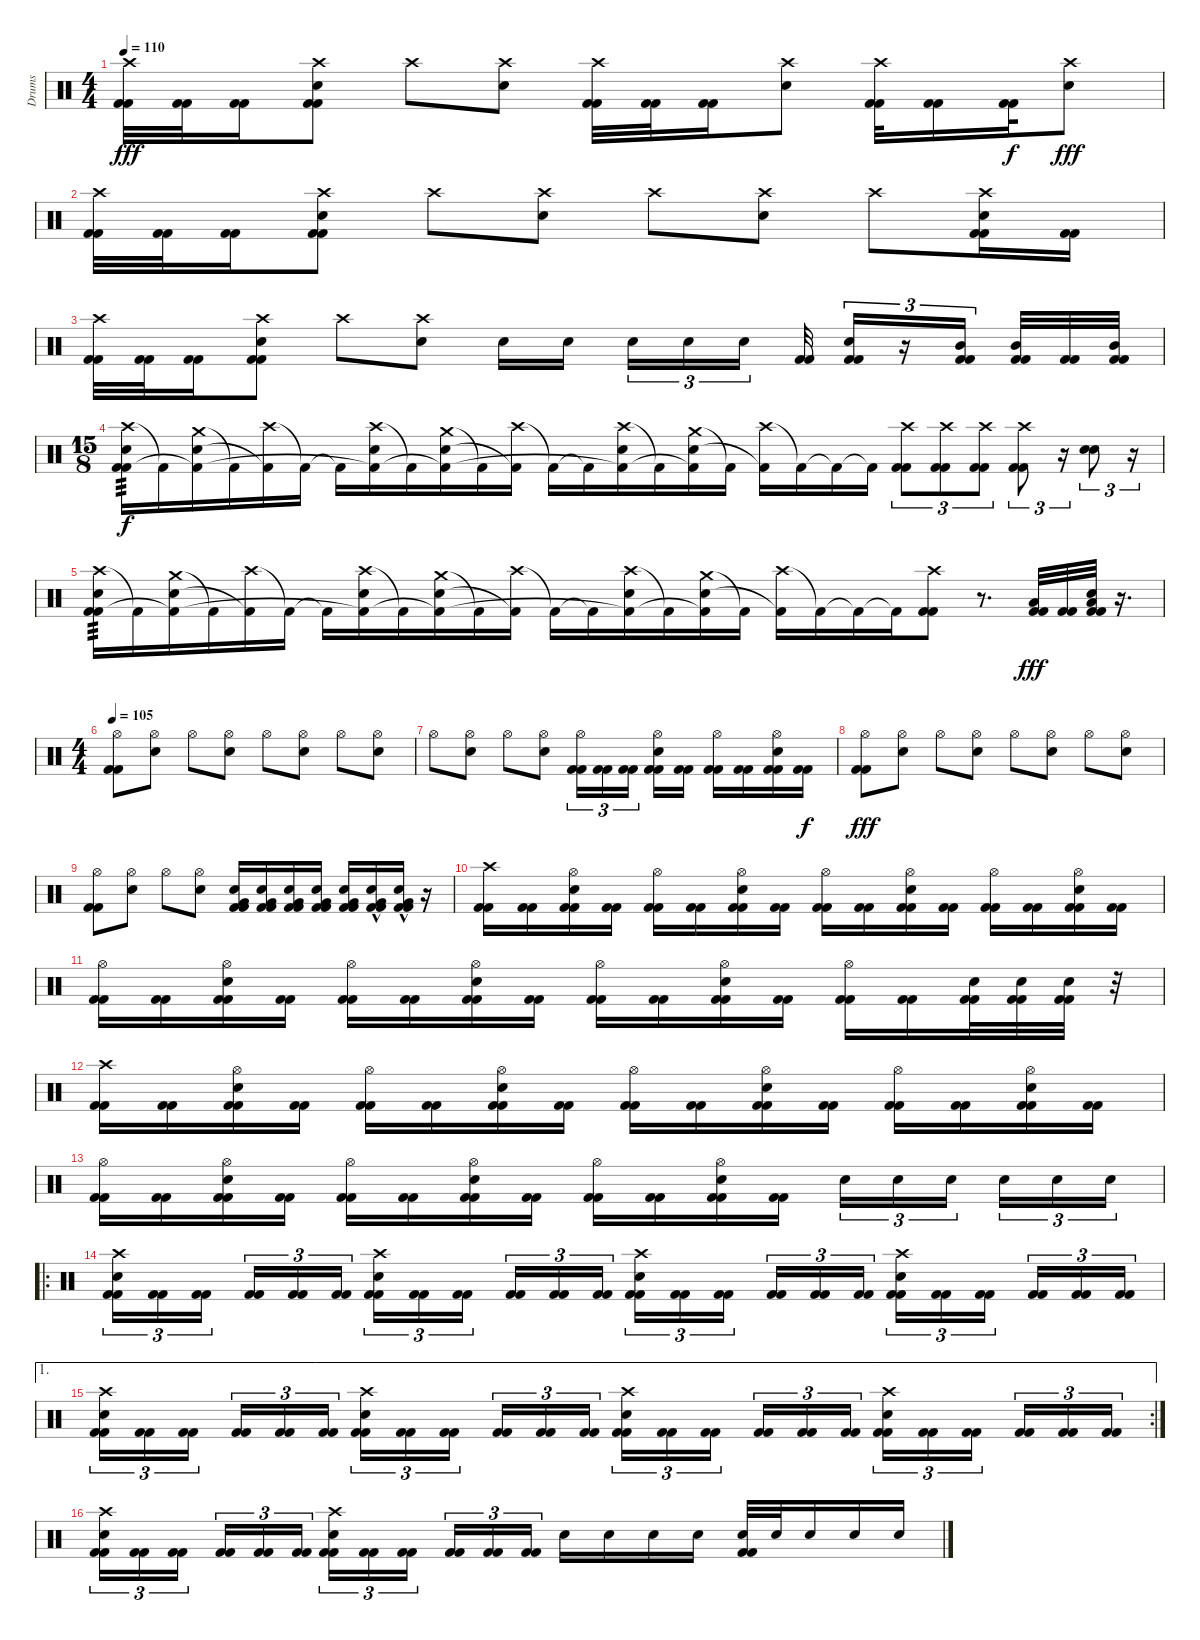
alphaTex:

\track ("Drums" "Drums") {instrument percussion}
\staff {score}
\articulation defaults
\ts (4 4)
\tempo 110
\clef neutral
\ks c
("Crash high (hit)" "Kick (hit) 2" "Kick (hit) 2").32{dy fff} ("Kick (hit) 2" "Kick (hit) 2").32 ("Kick (hit) 2" "Kick (hit) 2").16 ("Crash high (hit)" "Electric Snare (hit)" "Kick (hit) 2" "Kick (hit) 2").8 "Crash high (hit)".8 ("Crash high (hit)" "Electric Snare (hit)").8 ("Crash high (hit)" "Kick (hit) 2" "Kick (hit) 2").32 ("Kick (hit) 2" "Kick (hit) 2").32 ("Kick (hit) 2" "Kick (hit) 2").16 ("Crash high (hit)" "Electric Snare (hit)").8 ("Crash high (hit)" "Kick (hit) 2" "Kick (hit) 2").32 ("Kick (hit) 2" "Kick (hit) 2").16 ("Kick (hit) 2" "Kick (hit) 2").32{dy f} ("Crash high (hit)" "Electric Snare (hit)").8{dy fff} |
("Crash high (hit)" "Kick (hit) 2" "Kick (hit) 2").32 ("Kick (hit) 2" "Kick (hit) 2").32 ("Kick (hit) 2" "Kick (hit) 2").16 ("Crash high (hit)" "Electric Snare (hit)" "Kick (hit) 2" "Kick (hit) 2").8 "Crash high (hit)".8 ("Crash high (hit)" "Electric Snare (hit)").8 "Crash high (hit)".8 ("Crash high (hit)" "Electric Snare (hit)").8 "Crash high (hit)".8 ("Crash high (hit)" "Electric Snare (hit)" "Kick (hit) 2" "Kick (hit) 2").16 ("Kick (hit) 2" "Kick (hit) 2").16 |
("Crash high (hit)" "Kick (hit) 2" "Kick (hit) 2").32 ("Kick (hit) 2" "Kick (hit) 2").32 ("Kick (hit) 2" "Kick (hit) 2").16 ("Crash high (hit)" "Electric Snare (hit)" "Kick (hit) 2" "Kick (hit) 2").8 "Crash high (hit)".8 ("Crash high (hit)" "Electric Snare (hit)").8 "Electric Snare (hit)".16 "Electric Snare (hit)".16{beam splitsecondary} "Electric Snare (hit)".16{tu (3 2)} "Electric Snare (hit)".16{tu (3 2)} "Electric Snare (hit)".16{tu (3 2)} ("Kick (hit) 2" "Kick (hit) 2").32 ("Electric Snare (hit)" "Kick (hit) 2" "Kick (hit) 2").16{tu (3 2)} r.16{tu (3 2)} ("Mid Tom (hit)" "Kick (hit) 2" "Kick (hit) 2").16{tu (3 2) beam splitsecondary} ("Mid Tom (hit)" "Kick (hit) 2" "Kick (hit) 2").32 ("Kick (hit) 2" "Kick (hit) 2").32 ("Mid Tom (hit)" "Kick (hit) 2" "Kick (hit) 2").32 |
\ts (15 8)
("Crash high (hit)" "Electric Snare (hit)" "Kick (hit) 2" "Kick (hit) 2").16{tp 3 dy f} "Kick (hit) 2"{t}.16 ("Crash medium (hit)" "Electric Snare (hit)" "Kick (hit) 2"{t}).16 "Kick (hit) 2"{t}.16 ("Crash high (hit)" "Kick (hit) 2"{t}).16 "Kick (hit) 2"{t}.16 "Kick (hit) 2"{t}.16 ("Crash high (hit)" "Electric Snare (hit)" "Kick (hit) 2"{t}).16 "Kick (hit) 2"{t}.16 ("Crash medium (hit)" "Electric Snare (hit)" "Kick (hit) 2"{t}).16 "Kick (hit) 2"{t}.16 ("Crash high (hit)" "Kick (hit) 2"{t}).16 "Kick (hit) 2"{t}.16 "Kick (hit) 2"{t}.16 ("Crash high (hit)" "Electric Snare (hit)" "Kick (hit) 2"{t}).16 "Kick (hit) 2"{t}.16 ("Crash medium (hit)" "Electric Snare (hit)" "Kick (hit) 2"{t}).16 "Kick (hit) 2"{t}.16 ("Crash high (hit)" "Kick (hit) 2"{t}).16 "Kick (hit) 2"{t}.16 "Kick (hit) 2"{t}.16 "Kick (hit) 2"{t}.16 ("Crash high (hit)" "Kick (hit) 2" "Kick (hit) 2").8{tu (3 2)} ("Crash high (hit)" "Kick (hit) 2" "Kick (hit) 2").8{tu (3 2)} ("Crash high (hit)" "Kick (hit) 2" "Kick (hit) 2").8{tu (3 2)} ("Crash high (hit)" "Kick (hit) 2" "Kick (hit) 2").8{tu (3 2)} r.16{tu (3 2)} ("Electric Snare (hit)" "Electric Snare (hit)").8{tu (3 2)} r.16{tu (3 2)} |
("Crash high (hit)" "Electric Snare (hit)" "Kick (hit) 2" "Kick (hit) 2").16{tp 3} "Kick (hit) 2"{t}.16 ("Crash medium (hit)" "Electric Snare (hit)" "Kick (hit) 2"{t}).16 "Kick (hit) 2"{t}.16 ("Crash high (hit)" "Kick (hit) 2"{t}).16 "Kick (hit) 2"{t}.16 "Kick (hit) 2"{t}.16 ("Crash high (hit)" "Electric Snare (hit)" "Kick (hit) 2"{t}).16 "Kick (hit) 2"{t}.16 ("Crash medium (hit)" "Electric Snare (hit)" "Kick (hit) 2"{t}).16 "Kick (hit) 2"{t}.16 ("Crash high (hit)" "Kick (hit) 2"{t}).16 "Kick (hit) 2"{t}.16 "Kick (hit) 2"{t}.16 ("Crash high (hit)" "Electric Snare (hit)" "Kick (hit) 2"{t}).16 "Kick (hit) 2"{t}.16 ("Crash medium (hit)" "Electric Snare (hit)" "Kick (hit) 2"{t}).16 "Kick (hit) 2"{t}.16 ("Crash high (hit)" "Kick (hit) 2"{t}).16 "Kick (hit) 2"{t}.16 "Kick (hit) 2"{t}.16 "Kick (hit) 2"{t}.16 ("Crash high (hit)" "Kick (hit) 2" "Kick (hit) 2").8 r.8{d} ("Low Tom (hit)" "Kick (hit) 2" "Kick (hit) 2").32{dy fff} ("Kick (hit) 2" "Kick (hit) 2").32 ("Electric Snare (hit)" "Low Tom (hit)" "Kick (hit) 2" "Kick (hit) 2").32 r.16{d} |
\ts (4 4)
\tempo 105
("Hi-Hat (open)" "Kick (hit) 2" "Kick (hit) 2").8 ("Hi-Hat (open)" "Electric Snare (hit)").8 "Hi-Hat (open)".8 ("Hi-Hat (open)" "Electric Snare (hit)").8 "Hi-Hat (open)".8 ("Hi-Hat (open)" "Electric Snare (hit)").8 "Hi-Hat (open)".8 ("Hi-Hat (open)" "Electric Snare (hit)").8 |
"Hi-Hat (open)".8 ("Hi-Hat (open)" "Electric Snare (hit)").8 "Hi-Hat (open)".8 ("Hi-Hat (open)" "Electric Snare (hit)").8 ("Hi-Hat (open)" "Kick (hit) 2" "Kick (hit) 2").16{tu (3 2)} ("Kick (hit) 2" "Kick (hit) 2").16{tu (3 2)} ("Kick (hit) 2" "Kick (hit) 2").16{tu (3 2) beam splitsecondary} ("Hi-Hat (open)" "Electric Snare (hit)" "Kick (hit) 2" "Kick (hit) 2").16 ("Kick (hit) 2" "Kick (hit) 2").16 ("Hi-Hat (open)" "Kick (hit) 2" "Kick (hit) 2").16 ("Kick (hit) 2" "Kick (hit) 2").16 ("Hi-Hat (open)" "Electric Snare (hit)" "Kick (hit) 2" "Kick (hit) 2").16 ("Kick (hit) 2" "Kick (hit) 2").16{dy f} |
("Hi-Hat (open)" "Kick (hit) 2" "Kick (hit) 2").8{dy fff} ("Hi-Hat (open)" "Electric Snare (hit)").8 "Hi-Hat (open)".8 ("Hi-Hat (open)" "Electric Snare (hit)").8 "Hi-Hat (open)".8 ("Hi-Hat (open)" "Electric Snare (hit)").8 "Hi-Hat (open)".8 ("Hi-Hat (open)" "Electric Snare (hit)").8 |
("Hi-Hat (open)" "Kick (hit) 2" "Kick (hit) 2").8 ("Hi-Hat (open)" "Electric Snare (hit)").8 "Hi-Hat (open)".8 ("Hi-Hat (open)" "Electric Snare (hit)").8 ("Very Low Tom (hit)" "Electric Snare (hit)" "Kick (hit) 2" "Kick (hit) 2").16 ("Very Low Tom (hit)" "Electric Snare (hit)" "Kick (hit) 2" "Kick (hit) 2").16 ("Very Low Tom (hit)" "Electric Snare (hit)" "Kick (hit) 2" "Kick (hit) 2").16 ("Very Low Tom (hit)" "Electric Snare (hit)" "Kick (hit) 2" "Kick (hit) 2").16 ("Very Low Tom (hit)" "Electric Snare (hit)" "Kick (hit) 2" "Kick (hit) 2").16 ("Very Low Tom (hit)"{hac} "Electric Snare (hit)" "Kick (hit) 2" "Kick (hit) 2").16 ("Very Low Tom (hit)"{hac} "Electric Snare (hit)" "Kick (hit) 2" "Kick (hit) 2").16 r.16 |
("Crash high (hit)" "Kick (hit) 2" "Kick (hit) 2").16 ("Kick (hit) 2" "Kick (hit) 2").16 ("Hi-Hat (open)" "Electric Snare (hit)" "Kick (hit) 2" "Kick (hit) 2").16 ("Kick (hit) 2" "Kick (hit) 2").16 ("Hi-Hat (open)" "Kick (hit) 2" "Kick (hit) 2").16 ("Kick (hit) 2" "Kick (hit) 2").16 ("Hi-Hat (open)" "Electric Snare (hit)" "Kick (hit) 2" "Kick (hit) 2").16 ("Kick (hit) 2" "Kick (hit) 2").16 ("Hi-Hat (open)" "Kick (hit) 2" "Kick (hit) 2").16 ("Kick (hit) 2" "Kick (hit) 2").16 ("Hi-Hat (open)" "Electric Snare (hit)" "Kick (hit) 2" "Kick (hit) 2").16 ("Kick (hit) 2" "Kick (hit) 2").16 ("Hi-Hat (open)" "Kick (hit) 2" "Kick (hit) 2").16 ("Kick (hit) 2" "Kick (hit) 2").16 ("Hi-Hat (open)" "Electric Snare (hit)" "Kick (hit) 2" "Kick (hit) 2").16 ("Kick (hit) 2" "Kick (hit) 2").16 |
("Hi-Hat (open)" "Kick (hit) 2" "Kick (hit) 2").16 ("Kick (hit) 2" "Kick (hit) 2").16 ("Hi-Hat (open)" "Electric Snare (hit)" "Kick (hit) 2" "Kick (hit) 2").16 ("Kick (hit) 2" "Kick (hit) 2").16 ("Hi-Hat (open)" "Kick (hit) 2" "Kick (hit) 2").16 ("Kick (hit) 2" "Kick (hit) 2").16 ("Hi-Hat (open)" "Electric Snare (hit)" "Kick (hit) 2" "Kick (hit) 2").16 ("Kick (hit) 2" "Kick (hit) 2").16 ("Hi-Hat (open)" "Kick (hit) 2" "Kick (hit) 2").16 ("Kick (hit) 2" "Kick (hit) 2").16 ("Hi-Hat (open)" "Electric Snare (hit)" "Kick (hit) 2" "Kick (hit) 2").16 ("Kick (hit) 2" "Kick (hit) 2").16 ("Hi-Hat (open)" "Kick (hit) 2" "Kick (hit) 2").16 ("Kick (hit) 2" "Kick (hit) 2").16 ("Electric Snare (hit)" "Kick (hit) 2" "Kick (hit) 2").32 ("Electric Snare (hit)" "Kick (hit) 2" "Kick (hit) 2").32 ("Electric Snare (hit)" "Kick (hit) 2" "Kick (hit) 2").32 r.32 |
("Crash high (hit)" "Kick (hit) 2" "Kick (hit) 2").16 ("Kick (hit) 2" "Kick (hit) 2").16 ("Hi-Hat (open)" "Electric Snare (hit)" "Kick (hit) 2" "Kick (hit) 2").16 ("Kick (hit) 2" "Kick (hit) 2").16 ("Hi-Hat (open)" "Kick (hit) 2" "Kick (hit) 2").16 ("Kick (hit) 2" "Kick (hit) 2").16 ("Hi-Hat (open)" "Electric Snare (hit)" "Kick (hit) 2" "Kick (hit) 2").16 ("Kick (hit) 2" "Kick (hit) 2").16 ("Hi-Hat (open)" "Kick (hit) 2" "Kick (hit) 2").16 ("Kick (hit) 2" "Kick (hit) 2").16 ("Hi-Hat (open)" "Electric Snare (hit)" "Kick (hit) 2" "Kick (hit) 2").16 ("Kick (hit) 2" "Kick (hit) 2").16 ("Hi-Hat (open)" "Kick (hit) 2" "Kick (hit) 2").16 ("Kick (hit) 2" "Kick (hit) 2").16 ("Hi-Hat (open)" "Electric Snare (hit)" "Kick (hit) 2" "Kick (hit) 2").16 ("Kick (hit) 2" "Kick (hit) 2").16 |
("Hi-Hat (open)" "Kick (hit) 2" "Kick (hit) 2").16 ("Kick (hit) 2" "Kick (hit) 2").16 ("Hi-Hat (open)" "Electric Snare (hit)" "Kick (hit) 2" "Kick (hit) 2").16 ("Kick (hit) 2" "Kick (hit) 2").16 ("Hi-Hat (open)" "Kick (hit) 2" "Kick (hit) 2").16 ("Kick (hit) 2" "Kick (hit) 2").16 ("Hi-Hat (open)" "Electric Snare (hit)" "Kick (hit) 2" "Kick (hit) 2").16 ("Kick (hit) 2" "Kick (hit) 2").16 ("Hi-Hat (open)" "Kick (hit) 2" "Kick (hit) 2").16 ("Kick (hit) 2" "Kick (hit) 2").16 ("Hi-Hat (open)" "Electric Snare (hit)" "Kick (hit) 2" "Kick (hit) 2").16 ("Kick (hit) 2" "Kick (hit) 2").16 "Electric Snare (hit)".16{tu (3 2)} "Electric Snare (hit)".16{tu (3 2)} "Electric Snare (hit)".16{tu (3 2) beam splitsecondary} "Electric Snare (hit)".16{tu (3 2)} "Electric Snare (hit)".16{tu (3 2)} "Electric Snare (hit)".16{tu (3 2)} |
\ro
("Crash high (hit)" "Electric Snare (hit)" "Kick (hit) 2" "Kick (hit) 2").16{tu (3 2)} ("Kick (hit) 2" "Kick (hit) 2").16{tu (3 2)} ("Kick (hit) 2" "Kick (hit) 2").16{tu (3 2) beam splitsecondary} ("Kick (hit) 2" "Kick (hit) 2").16{tu (3 2)} ("Kick (hit) 2" "Kick (hit) 2").16{tu (3 2)} ("Kick (hit) 2" "Kick (hit) 2").16{tu (3 2)} ("Crash high (hit)" "Electric Snare (hit)" "Kick (hit) 2" "Kick (hit) 2").16{tu (3 2)} ("Kick (hit) 2" "Kick (hit) 2").16{tu (3 2)} ("Kick (hit) 2" "Kick (hit) 2").16{tu (3 2) beam splitsecondary} ("Kick (hit) 2" "Kick (hit) 2").16{tu (3 2)} ("Kick (hit) 2" "Kick (hit) 2").16{tu (3 2)} ("Kick (hit) 2" "Kick (hit) 2").16{tu (3 2)} ("Crash high (hit)" "Electric Snare (hit)" "Kick (hit) 2" "Kick (hit) 2").16{tu (3 2)} ("Kick (hit) 2" "Kick (hit) 2").16{tu (3 2)} ("Kick (hit) 2" "Kick (hit) 2").16{tu (3 2) beam splitsecondary} ("Kick (hit) 2" "Kick (hit) 2").16{tu (3 2)} ("Kick (hit) 2" "Kick (hit) 2").16{tu (3 2)} ("Kick (hit) 2" "Kick (hit) 2").16{tu (3 2)} ("Crash high (hit)" "Electric Snare (hit)" "Kick (hit) 2" "Kick (hit) 2").16{tu (3 2)} ("Kick (hit) 2" "Kick (hit) 2").16{tu (3 2)} ("Kick (hit) 2" "Kick (hit) 2").16{tu (3 2) beam splitsecondary} ("Kick (hit) 2" "Kick (hit) 2").16{tu (3 2)} ("Kick (hit) 2" "Kick (hit) 2").16{tu (3 2)} ("Kick (hit) 2" "Kick (hit) 2").16{tu (3 2)} |
\ae 1
\rc 2
("Crash high (hit)" "Electric Snare (hit)" "Kick (hit) 2" "Kick (hit) 2").16{tu (3 2)} ("Kick (hit) 2" "Kick (hit) 2").16{tu (3 2)} ("Kick (hit) 2" "Kick (hit) 2").16{tu (3 2) beam splitsecondary} ("Kick (hit) 2" "Kick (hit) 2").16{tu (3 2)} ("Kick (hit) 2" "Kick (hit) 2").16{tu (3 2)} ("Kick (hit) 2" "Kick (hit) 2").16{tu (3 2)} ("Crash high (hit)" "Electric Snare (hit)" "Kick (hit) 2" "Kick (hit) 2").16{tu (3 2)} ("Kick (hit) 2" "Kick (hit) 2").16{tu (3 2)} ("Kick (hit) 2" "Kick (hit) 2").16{tu (3 2) beam splitsecondary} ("Kick (hit) 2" "Kick (hit) 2").16{tu (3 2)} ("Kick (hit) 2" "Kick (hit) 2").16{tu (3 2)} ("Kick (hit) 2" "Kick (hit) 2").16{tu (3 2)} ("Crash high (hit)" "Electric Snare (hit)" "Kick (hit) 2" "Kick (hit) 2").16{tu (3 2)} ("Kick (hit) 2" "Kick (hit) 2").16{tu (3 2)} ("Kick (hit) 2" "Kick (hit) 2").16{tu (3 2) beam splitsecondary} ("Kick (hit) 2" "Kick (hit) 2").16{tu (3 2)} ("Kick (hit) 2" "Kick (hit) 2").16{tu (3 2)} ("Kick (hit) 2" "Kick (hit) 2").16{tu (3 2)} ("Crash high (hit)" "Electric Snare (hit)" "Kick (hit) 2" "Kick (hit) 2").16{tu (3 2)} ("Kick (hit) 2" "Kick (hit) 2").16{tu (3 2)} ("Kick (hit) 2" "Kick (hit) 2").16{tu (3 2) beam splitsecondary} ("Kick (hit) 2" "Kick (hit) 2").16{tu (3 2)} ("Kick (hit) 2" "Kick (hit) 2").16{tu (3 2)} ("Kick (hit) 2" "Kick (hit) 2").16{tu (3 2)} |
("Crash high (hit)" "Electric Snare (hit)" "Kick (hit) 2" "Kick (hit) 2").16{tu (3 2)} ("Kick (hit) 2" "Kick (hit) 2").16{tu (3 2)} ("Kick (hit) 2" "Kick (hit) 2").16{tu (3 2) beam splitsecondary} ("Kick (hit) 2" "Kick (hit) 2").16{tu (3 2)} ("Kick (hit) 2" "Kick (hit) 2").16{tu (3 2)} ("Kick (hit) 2" "Kick (hit) 2").16{tu (3 2)} ("Crash high (hit)" "Electric Snare (hit)" "Kick (hit) 2" "Kick (hit) 2").16{tu (3 2)} ("Kick (hit) 2" "Kick (hit) 2").16{tu (3 2)} ("Kick (hit) 2" "Kick (hit) 2").16{tu (3 2) beam splitsecondary} ("Kick (hit) 2" "Kick (hit) 2").16{tu (3 2)} ("Kick (hit) 2" "Kick (hit) 2").16{tu (3 2)} ("Kick (hit) 2" "Kick (hit) 2").16{tu (3 2)} "Electric Snare (hit)".16 "Electric Snare (hit)".16 "Electric Snare (hit)".16 "Electric Snare (hit)".16 ("Electric Snare (hit)" "Kick (hit) 2" "Kick (hit) 2").32 "Electric Snare (hit)".32 "Electric Snare (hit)".16 "Electric Snare (hit)".16 "Electric Snare (hit)".16
